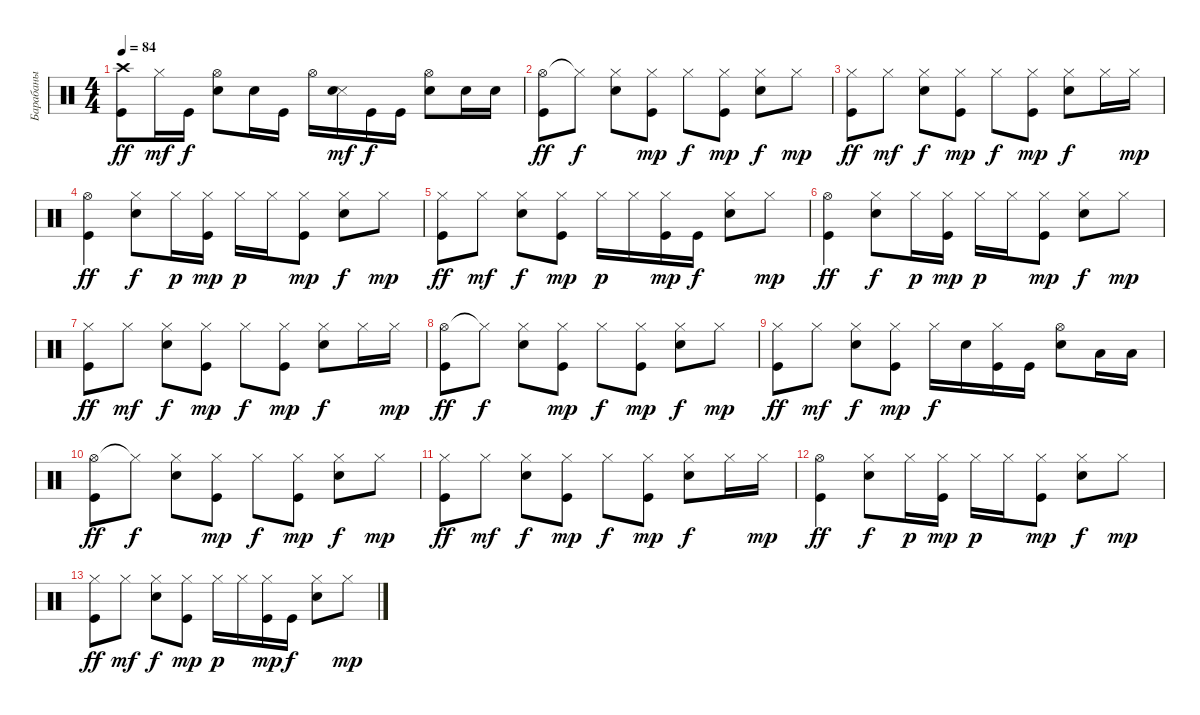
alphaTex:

\track ("Барабаны" "Барабаны") {instrument percussion}
\staff {score}
\articulation defaults
\ts (4 4)
\tempo 84
\clef neutral
\ks c
("Crash high (hit)" "Kick (hit)").8{dy ff} "Hi-Hat (closed)".16{dy mf} "Kick (hit)".16{dy f} ("Hi-Hat (open)" "Electric Snare (hit)").8 "Electric Snare (hit)".16 "Kick (hit)".16 "Hi-Hat (open)".16 ("Snare (side stick) 3" "Electric Snare (hit)").16{dy mf} "Kick (hit)".16{dy f} "Kick (hit)".16 ("Hi-Hat (open)" "Electric Snare (hit)").8 "Electric Snare (hit)".16 "Electric Snare (hit)".16 |
("Hi-Hat (open)" "Kick (hit)").8{dy ff} "Hi-Hat (closed)"{t}.8{dy f} ("Hi-Hat (closed)" "Electric Snare (hit)").8 ("Hi-Hat (closed)" "Kick (hit)").8{dy mp} "Hi-Hat (closed)".8{dy f} ("Hi-Hat (closed)" "Kick (hit)").8{dy mp} ("Hi-Hat (closed)" "Electric Snare (hit)").8{dy f} "Hi-Hat (closed)".8{dy mp} |
("Hi-Hat (closed)" "Kick (hit)").8{dy ff} "Hi-Hat (closed)".8{dy mf} ("Hi-Hat (closed)" "Electric Snare (hit)").8{dy f} ("Hi-Hat (closed)" "Kick (hit)").8{dy mp} "Hi-Hat (closed)".8{dy f} ("Hi-Hat (closed)" "Kick (hit)").8{dy mp} ("Hi-Hat (closed)" "Electric Snare (hit)").8{dy f} "Hi-Hat (closed)".16 "Hi-Hat (closed)".16{dy mp} |
("Hi-Hat (open)" "Kick (hit)").4{dy ff} ("Hi-Hat (closed)" "Electric Snare (hit)").8{dy f} "Hi-Hat (closed)".16{dy p} ("Hi-Hat (closed)" "Kick (hit)").16{dy mp} "Hi-Hat (closed)".16{dy p} "Hi-Hat (closed)".16 ("Hi-Hat (closed)" "Kick (hit)").8{dy mp} ("Hi-Hat (closed)" "Electric Snare (hit)").8{dy f} "Hi-Hat (closed)".8{dy mp} |
("Hi-Hat (closed)" "Kick (hit)").8{dy ff} "Hi-Hat (closed)".8{dy mf} ("Hi-Hat (closed)" "Electric Snare (hit)").8{dy f} ("Hi-Hat (closed)" "Kick (hit)").8{dy mp} "Hi-Hat (closed)".16{dy p} "Hi-Hat (closed)".16 ("Hi-Hat (closed)" "Kick (hit)").16{dy mp} "Kick (hit)".16{dy f} ("Hi-Hat (closed)" "Electric Snare (hit)").8 "Hi-Hat (closed)".8{dy mp} |
("Hi-Hat (open)" "Kick (hit)").4{dy ff} ("Hi-Hat (closed)" "Electric Snare (hit)").8{dy f} "Hi-Hat (closed)".16{dy p} ("Hi-Hat (closed)" "Kick (hit)").16{dy mp} "Hi-Hat (closed)".16{dy p} "Hi-Hat (closed)".16 ("Hi-Hat (closed)" "Kick (hit)").8{dy mp} ("Hi-Hat (closed)" "Electric Snare (hit)").8{dy f} "Hi-Hat (closed)".8{dy mp} |
("Hi-Hat (closed)" "Kick (hit)").8{dy ff} "Hi-Hat (closed)".8{dy mf} ("Hi-Hat (closed)" "Electric Snare (hit)").8{dy f} ("Hi-Hat (closed)" "Kick (hit)").8{dy mp} "Hi-Hat (closed)".8{dy f} ("Hi-Hat (closed)" "Kick (hit)").8{dy mp} ("Hi-Hat (closed)" "Electric Snare (hit)").8{dy f} "Hi-Hat (closed)".16 "Hi-Hat (closed)".16{dy mp} |
("Hi-Hat (open)" "Kick (hit)").8{dy ff} "Hi-Hat (closed)"{t}.8{dy f} ("Hi-Hat (closed)" "Electric Snare (hit)").8 ("Hi-Hat (closed)" "Kick (hit)").8{dy mp} "Hi-Hat (closed)".8{dy f} ("Hi-Hat (closed)" "Kick (hit)").8{dy mp} ("Hi-Hat (closed)" "Electric Snare (hit)").8{dy f} "Hi-Hat (closed)".8{dy mp} |
("Hi-Hat (closed)" "Kick (hit)").8{dy ff} "Hi-Hat (closed)".8{dy mf} ("Hi-Hat (closed)" "Electric Snare (hit)").8{dy f} ("Hi-Hat (closed)" "Kick (hit)").8{dy mp} "Hi-Hat (closed)".16{dy f} "Electric Snare (hit)".16 ("Hi-Hat (closed)" "Kick (hit)").16 "Kick (hit)".16 ("Hi-Hat (open)" "Electric Snare (hit)").8 "Low Tom (hit)".16 "Low Tom (hit)".16 |
("Hi-Hat (open)" "Kick (hit)").8{dy ff} "Hi-Hat (closed)"{t}.8{dy f} ("Hi-Hat (closed)" "Electric Snare (hit)").8 ("Hi-Hat (closed)" "Kick (hit)").8{dy mp} "Hi-Hat (closed)".8{dy f volume 12} ("Hi-Hat (closed)" "Kick (hit)").8{dy mp} ("Hi-Hat (closed)" "Electric Snare (hit)").8{dy f} "Hi-Hat (closed)".8{dy mp} |
("Hi-Hat (closed)" "Kick (hit)").8{dy ff volume 11} "Hi-Hat (closed)".8{dy mf} ("Hi-Hat (closed)" "Electric Snare (hit)").8{dy f volume 11} ("Hi-Hat (closed)" "Kick (hit)").8{dy mp} "Hi-Hat (closed)".8{dy f volume 10} ("Hi-Hat (closed)" "Kick (hit)").8{dy mp} ("Hi-Hat (closed)" "Electric Snare (hit)").8{dy f volume 9} "Hi-Hat (closed)".16 "Hi-Hat (closed)".16{dy mp} |
("Hi-Hat (open)" "Kick (hit)").4{dy ff volume 8} ("Hi-Hat (closed)" "Electric Snare (hit)").8{dy f volume 7} "Hi-Hat (closed)".16{dy p} ("Hi-Hat (closed)" "Kick (hit)").16{dy mp} "Hi-Hat (closed)".16{dy p volume 6} "Hi-Hat (closed)".16 ("Hi-Hat (closed)" "Kick (hit)").8{dy mp} ("Hi-Hat (closed)" "Electric Snare (hit)").8{dy f volume 5} "Hi-Hat (closed)".8{dy mp} |
("Hi-Hat (closed)" "Kick (hit)").8{dy ff volume 4} "Hi-Hat (closed)".8{dy mf} ("Hi-Hat (closed)" "Electric Snare (hit)").8{dy f volume 3} ("Hi-Hat (closed)" "Kick (hit)").8{dy mp} "Hi-Hat (closed)".16{dy p volume 2} "Hi-Hat (closed)".16 ("Hi-Hat (closed)" "Kick (hit)").16{dy mp} "Kick (hit)".16{dy f} ("Hi-Hat (closed)" "Electric Snare (hit)").8{volume 1} "Hi-Hat (closed)".8{dy mp}
